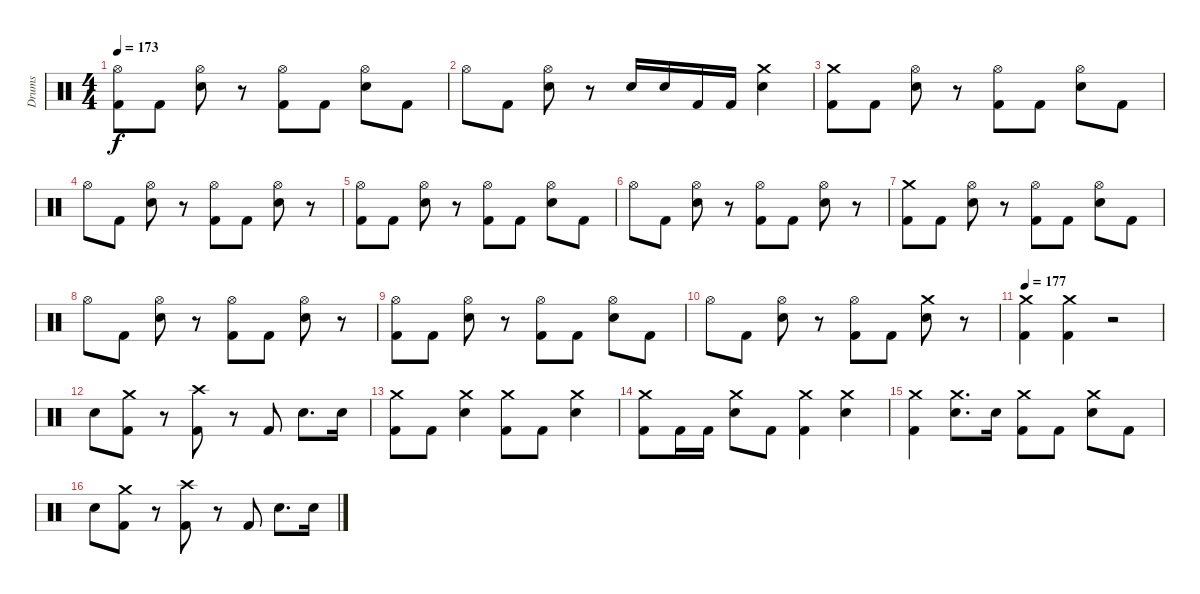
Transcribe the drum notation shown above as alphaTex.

\track ("Drums" "Drums") {instrument percussion}
\staff {score}
\articulation defaults
\ts (4 4)
\tempo 173
\clef neutral
\ks c
("Hi-Hat (open)" "Kick (hit) 2").8{dy f} "Kick (hit) 2".8 ("Hi-Hat (open)" "Snare (hit) 2").8 r.8 ("Hi-Hat (open)" "Kick (hit) 2").8 "Kick (hit) 2".8 ("Hi-Hat (open)" "Snare (hit) 2").8 "Kick (hit) 2".8 |
"Hi-Hat (open)".8 "Kick (hit) 2".8 ("Hi-Hat (open)" "Snare (hit) 2").8 r.8 "Snare (hit) 2".16 "Snare (hit) 2".16 "Kick (hit) 2".16 "Kick (hit) 2".16 ("Crash medium (hit)" "Snare (hit) 2").4 |
("Crash medium (hit)" "Kick (hit) 2").8 "Kick (hit) 2".8 ("Hi-Hat (open)" "Snare (hit) 2").8 r.8 ("Hi-Hat (open)" "Kick (hit) 2").8 "Kick (hit) 2".8 ("Hi-Hat (open)" "Snare (hit) 2").8 "Kick (hit) 2".8 |
"Hi-Hat (open)".8 "Kick (hit) 2".8 ("Hi-Hat (open)" "Snare (hit) 2").8 r.8 ("Hi-Hat (open)" "Kick (hit) 2").8 "Kick (hit) 2".8 ("Hi-Hat (open)" "Snare (hit) 2").8 r.8 |
("Hi-Hat (open)" "Kick (hit) 2").8 "Kick (hit) 2".8 ("Hi-Hat (open)" "Snare (hit) 2").8 r.8 ("Hi-Hat (open)" "Kick (hit) 2").8 "Kick (hit) 2".8 ("Hi-Hat (open)" "Snare (hit) 2").8 "Kick (hit) 2".8 |
"Hi-Hat (open)".8 "Kick (hit) 2".8 ("Hi-Hat (open)" "Snare (hit) 2").8 r.8 ("Hi-Hat (open)" "Kick (hit) 2").8 "Kick (hit) 2".8 ("Hi-Hat (open)" "Snare (hit) 2").8 r.8 |
("Crash medium (hit)" "Kick (hit) 2").8 "Kick (hit) 2".8 ("Hi-Hat (open)" "Snare (hit) 2").8 r.8 ("Hi-Hat (open)" "Kick (hit) 2").8 "Kick (hit) 2".8 ("Hi-Hat (open)" "Snare (hit) 2").8 "Kick (hit) 2".8 |
"Hi-Hat (open)".8 "Kick (hit) 2".8 ("Hi-Hat (open)" "Snare (hit) 2").8 r.8 ("Hi-Hat (open)" "Kick (hit) 2").8 "Kick (hit) 2".8 ("Hi-Hat (open)" "Snare (hit) 2").8 r.8 |
("Hi-Hat (open)" "Kick (hit) 2").8 "Kick (hit) 2".8 ("Hi-Hat (open)" "Snare (hit) 2").8 r.8 ("Hi-Hat (open)" "Kick (hit) 2").8 "Kick (hit) 2".8 ("Hi-Hat (open)" "Snare (hit) 2").8 "Kick (hit) 2".8 |
"Hi-Hat (open)".8 "Kick (hit) 2".8 ("Hi-Hat (open)" "Snare (hit) 2").8 r.8 ("Hi-Hat (open)" "Kick (hit) 2").8 "Kick (hit) 2".8 ("Crash medium (hit)" "Snare (hit) 2").8 r.8 |
\tempo 177
("Crash medium (hit)" "Kick (hit) 2").4 ("Crash medium (hit)" "Kick (hit) 2").4 r.2 |
"Snare (hit) 2".8 ("Crash medium (hit)" "Kick (hit) 2").8 r.8 ("Crash high (hit)" "Kick (hit) 2").8 r.8 "Kick (hit) 2".8 "Snare (hit) 2".8{d} "Snare (hit) 2".16 |
("Crash medium (hit)" "Kick (hit) 2").8 "Kick (hit) 2".8 ("Crash medium (hit)" "Snare (hit) 2").4 ("Crash medium (hit)" "Kick (hit) 2").8 "Kick (hit) 2".8 ("Crash medium (hit)" "Snare (hit) 2").4 |
("Crash medium (hit)" "Kick (hit) 2").8 "Kick (hit) 2".16 "Kick (hit) 2".16 ("Crash medium (hit)" "Snare (hit) 2").8 "Kick (hit) 2".8 ("Crash medium (hit)" "Kick (hit) 2").4 ("Crash medium (hit)" "Snare (hit) 2").4 |
("Crash medium (hit)" "Kick (hit) 2").4 ("Crash medium (hit)" "Snare (hit) 2").8{d} "Snare (hit) 2".16 ("Crash medium (hit)" "Kick (hit) 2").8 "Kick (hit) 2".8 ("Crash medium (hit)" "Snare (hit) 2").8 "Kick (hit) 2".8 |
"Snare (hit) 2".8 ("Crash medium (hit)" "Kick (hit) 2").8 r.8 ("Crash high (hit)" "Kick (hit) 2").8 r.8 "Kick (hit) 2".8 "Snare (hit) 2".8{d} "Snare (hit) 2".16
